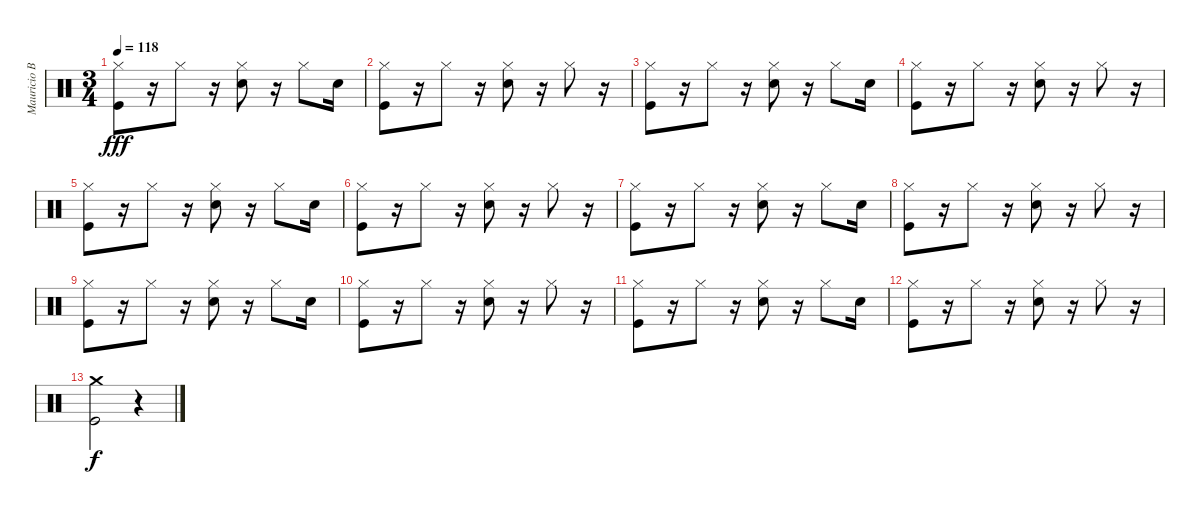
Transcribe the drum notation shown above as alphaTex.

\track ("Mauricio Basualto" "Mauricio B") {instrument percussion}
\staff {score}
\articulation defaults
\ts (3 4)
\tempo 118
\clef neutral
\ks c
("Hi-Hat (closed)" "Kick (hit)").8{dy fff} r.16 "Hi-Hat (closed)".8 r.16 ("Hi-Hat (closed)" "Snare (hit) 2").8 r.16 "Hi-Hat (closed)".8 "Snare (hit) 2".16 |
("Hi-Hat (closed)" "Kick (hit)").8 r.16 "Hi-Hat (closed)".8 r.16 ("Hi-Hat (closed)" "Snare (hit) 2").8 r.16 "Hi-Hat (closed)".8 r.16 |
("Hi-Hat (closed)" "Kick (hit)").8 r.16 "Hi-Hat (closed)".8 r.16 ("Hi-Hat (closed)" "Snare (hit) 2").8 r.16 "Hi-Hat (closed)".8 "Snare (hit) 2".16 |
("Hi-Hat (closed)" "Kick (hit)").8 r.16 "Hi-Hat (closed)".8 r.16 ("Hi-Hat (closed)" "Snare (hit) 2").8 r.16 "Hi-Hat (closed)".8 r.16 |
("Hi-Hat (closed)" "Kick (hit)").8 r.16 "Hi-Hat (closed)".8 r.16 ("Hi-Hat (closed)" "Snare (hit) 2").8 r.16 "Hi-Hat (closed)".8 "Snare (hit) 2".16 |
("Hi-Hat (closed)" "Kick (hit)").8 r.16 "Hi-Hat (closed)".8 r.16 ("Hi-Hat (closed)" "Snare (hit) 2").8 r.16 "Hi-Hat (closed)".8 r.16 |
("Hi-Hat (closed)" "Kick (hit)").8 r.16 "Hi-Hat (closed)".8 r.16 ("Hi-Hat (closed)" "Snare (hit) 2").8 r.16 "Hi-Hat (closed)".8 "Snare (hit) 2".16 |
("Hi-Hat (closed)" "Kick (hit)").8 r.16 "Hi-Hat (closed)".8 r.16 ("Hi-Hat (closed)" "Snare (hit) 2").8 r.16 "Hi-Hat (closed)".8 r.16 |
("Hi-Hat (closed)" "Kick (hit)").8 r.16 "Hi-Hat (closed)".8 r.16 ("Hi-Hat (closed)" "Snare (hit) 2").8 r.16 "Hi-Hat (closed)".8 "Snare (hit) 2".16 |
("Hi-Hat (closed)" "Kick (hit)").8 r.16 "Hi-Hat (closed)".8 r.16 ("Hi-Hat (closed)" "Snare (hit) 2").8 r.16 "Hi-Hat (closed)".8 r.16 |
("Hi-Hat (closed)" "Kick (hit)").8 r.16 "Hi-Hat (closed)".8 r.16 ("Hi-Hat (closed)" "Snare (hit) 2").8 r.16 "Hi-Hat (closed)".8 "Snare (hit) 2".16 |
("Hi-Hat (closed)" "Kick (hit)").8 r.16 "Hi-Hat (closed)".8 r.16 ("Hi-Hat (closed)" "Snare (hit) 2").8 r.16 "Hi-Hat (closed)".8 r.16 |
("Kick (hit)" "Crash medium (hit)").2{dy f} r.4
